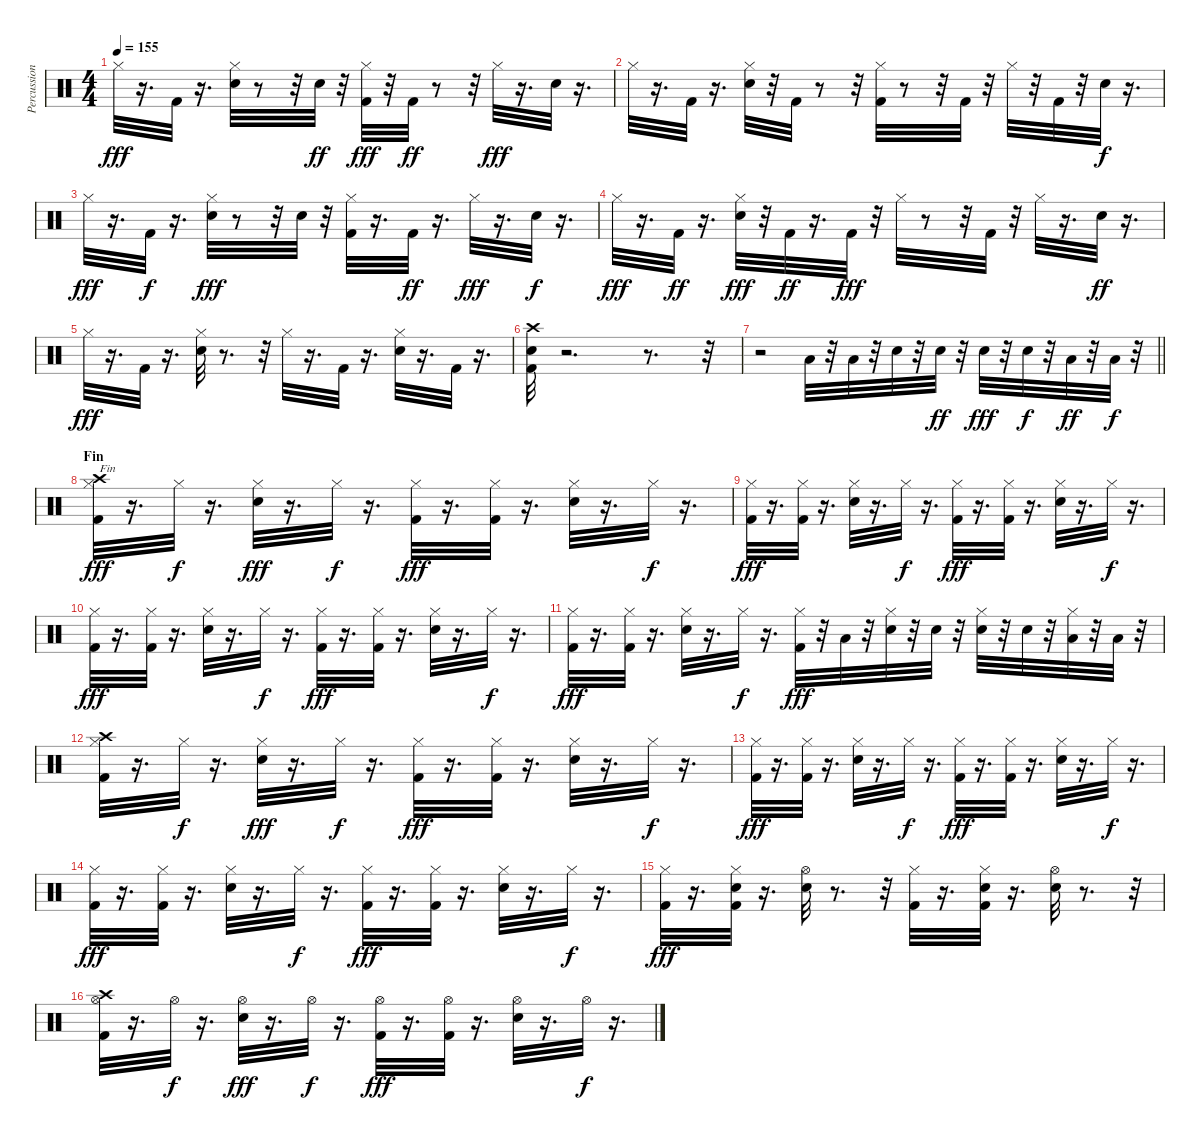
\track ("Percussions" "Percussion") {instrument percussion}
\staff {score}
\articulation defaults
\ts (4 4)
\tempo 155
\clef neutral
\ks c "Hi-Hat (closed)".32{dy fff}
r.16{d} "Kick (hit) 2".32 r.16{d} ("Snare (hit) 2" "Hi-Hat (closed)").32 r.8 r.32 "Snare (hit) 2".32{dy ff} r.32 ("Kick (hit) 2" "Hi-Hat (closed)").32{dy fff} r.32 "Kick (hit) 2".32{dy ff} r.8 r.32 "Hi-Hat (closed)".32{dy fff} r.16{d} "Snare (hit) 2".32 r.16{d} |
"Hi-Hat (closed)".32 r.16{d} "Kick (hit) 2".32 r.16{d} ("Snare (hit) 2" "Hi-Hat (closed)").32 r.32 "Kick (hit) 2".32 r.8 r.32 ("Kick (hit) 2" "Hi-Hat (closed)").32 r.8 r.32 "Kick (hit) 2".32 r.32 "Hi-Hat (closed)".32 r.32 "Kick (hit) 2".32 r.32 "Snare (hit) 2".32{dy f} r.16{d} |
"Hi-Hat (closed)".32{dy fff} r.16{d} "Kick (hit) 2".32{dy f} r.16{d} ("Hi-Hat (closed)" "Snare (hit) 2").32{dy fff} r.8 r.32 "Snare (hit) 2".32 r.32 ("Kick (hit) 2" "Hi-Hat (closed)").32 r.16{d} "Kick (hit) 2".32{dy ff} r.16{d} "Hi-Hat (closed)".32{dy fff} r.16{d} "Snare (hit) 2".32{dy f} r.16{d} |
"Hi-Hat (closed)".32{dy fff} r.16{d} "Kick (hit) 2".32{dy ff} r.16{d} ("Snare (hit) 2" "Hi-Hat (closed)").32{dy fff} r.32 "Kick (hit) 2".32{dy ff} r.16{d} "Kick (hit) 2".32{dy fff} r.32 "Hi-Hat (closed)".32 r.8 r.32 "Kick (hit) 2".32 r.32 "Hi-Hat (closed)".32 r.16{d} "Snare (hit) 2".32{dy ff} r.16{d} |
"Hi-Hat (closed)".32{dy fff} r.16{d} "Kick (hit) 2".32 r.16{d} ("Snare (hit) 2" "Hi-Hat (closed)").32 r.8{d} r.32 "Hi-Hat (closed)".32 r.16{d} "Kick (hit) 2".32 r.16{d} ("Snare (hit) 2" "Hi-Hat (closed)").32 r.16{d} "Kick (hit) 2".32 r.16{d} |
("Crash high (hit)" "Snare (hit) 2" "Kick (hit) 2").32 r.2{d} r.8{d} r.32 |
\barLineRight lightlight
r.2 "Low Floor Tom (hit)".32 r.32 "Low Floor Tom (hit)".32 r.32 "Snare (hit) 2".32 r.32 "Snare (hit) 2".32{dy ff} r.32 "Snare (hit) 2".32{dy fff} r.32 "Snare (hit) 2".32{dy f} r.32 "Low Tom (hit)".32{dy ff} r.32 "Low Tom (hit)".32{dy f} r.32 |
\section ("" "Fin")
("Crash high (hit)" "Hi-Hat (closed)" "Kick (hit) 2").32{txt "Fin" dy fff} r.16{d} "Hi-Hat (closed)".32{dy f} r.16{d} ("Hi-Hat (closed)" "Snare (hit) 2").32{dy fff} r.16{d} "Hi-Hat (closed)".32{dy f} r.16{d} ("Hi-Hat (closed)" "Kick (hit) 2").32{dy fff} r.16{d} ("Hi-Hat (closed)" "Kick (hit) 2").32 r.16{d} ("Hi-Hat (closed)" "Snare (hit) 2").32 r.16{d} "Hi-Hat (closed)".32{dy f} r.16{d} |
("Hi-Hat (closed)" "Kick (hit) 2").32{dy fff} r.16{d} ("Kick (hit) 2" "Hi-Hat (closed)").32 r.16{d} ("Hi-Hat (closed)" "Snare (hit) 2").32 r.16{d} "Hi-Hat (closed)".32{dy f} r.16{d} ("Hi-Hat (closed)" "Kick (hit) 2").32{dy fff} r.16{d} ("Hi-Hat (closed)" "Kick (hit) 2").32 r.16{d} ("Hi-Hat (closed)" "Snare (hit) 2").32 r.16{d} "Hi-Hat (closed)".32{dy f} r.16{d} |
("Hi-Hat (closed)" "Kick (hit) 2").32{dy fff} r.16{d} ("Kick (hit) 2" "Hi-Hat (closed)").32 r.16{d} ("Hi-Hat (closed)" "Snare (hit) 2").32 r.16{d} "Hi-Hat (closed)".32{dy f} r.16{d} ("Hi-Hat (closed)" "Kick (hit) 2").32{dy fff} r.16{d} ("Hi-Hat (closed)" "Kick (hit) 2").32 r.16{d} ("Hi-Hat (closed)" "Snare (hit) 2").32 r.16{d} "Hi-Hat (closed)".32{dy f} r.16{d} |
("Hi-Hat (closed)" "Kick (hit) 2").32{dy fff} r.16{d} ("Kick (hit) 2" "Hi-Hat (closed)").32 r.16{d} ("Hi-Hat (closed)" "Snare (hit) 2").32 r.16{d} "Hi-Hat (closed)".32{dy f} r.16{d} ("Kick (hit) 2" "Hi-Hat (closed)").32{dy fff} r.32 "Low Floor Tom (hit)".32 r.32 ("Snare (hit) 2" "Hi-Hat (closed)").32 r.32 "Snare (hit) 2".32 r.32 ("Snare (hit) 2" "Hi-Hat (closed)").32 r.32 "Snare (hit) 2".32 r.32 ("Low Tom (hit)" "Hi-Hat (closed)").32 r.32 "Low Tom (hit)".32 r.32 |
("Crash high (hit)" "Hi-Hat (closed)" "Kick (hit) 2").32 r.16{d} "Hi-Hat (closed)".32{dy f} r.16{d} ("Hi-Hat (closed)" "Snare (hit) 2").32{dy fff} r.16{d} "Hi-Hat (closed)".32{dy f} r.16{d} ("Hi-Hat (closed)" "Kick (hit) 2").32{dy fff} r.16{d} ("Hi-Hat (closed)" "Kick (hit) 2").32 r.16{d} ("Hi-Hat (closed)" "Snare (hit) 2").32 r.16{d} "Hi-Hat (closed)".32{dy f} r.16{d} |
("Hi-Hat (closed)" "Kick (hit) 2").32{dy fff} r.16{d} ("Kick (hit) 2" "Hi-Hat (closed)").32 r.16{d} ("Hi-Hat (closed)" "Snare (hit) 2").32 r.16{d} "Hi-Hat (closed)".32{dy f} r.16{d} ("Hi-Hat (closed)" "Kick (hit) 2").32{dy fff} r.16{d} ("Hi-Hat (closed)" "Kick (hit) 2").32 r.16{d} ("Hi-Hat (closed)" "Snare (hit) 2").32 r.16{d} "Hi-Hat (closed)".32{dy f} r.16{d} |
("Hi-Hat (closed)" "Kick (hit) 2").32{dy fff} r.16{d} ("Kick (hit) 2" "Hi-Hat (closed)").32 r.16{d} ("Hi-Hat (closed)" "Snare (hit) 2").32 r.16{d} "Hi-Hat (closed)".32{dy f} r.16{d} ("Hi-Hat (closed)" "Kick (hit) 2").32{dy fff} r.16{d} ("Hi-Hat (closed)" "Kick (hit) 2").32 r.16{d} ("Hi-Hat (closed)" "Snare (hit) 2").32 r.16{d} "Hi-Hat (closed)".32{dy f} r.16{d} |
("Hi-Hat (closed)" "Kick (hit) 2").32{dy fff} r.16{d} ("Snare (hit) 2" "Kick (hit) 2" "Hi-Hat (closed)").32 r.16{d} ("Hi-Hat (open)" "Snare (hit) 2").32 r.8{d} r.32 ("Kick (hit) 2" "Hi-Hat (closed)").32 r.16{d} ("Snare (hit) 2" "Kick (hit) 2" "Hi-Hat (closed)").32 r.16{d} ("Hi-Hat (open)" "Snare (hit) 2").32 r.8{d} r.32 |
("Crash high (hit)" "Kick (hit) 2" "Hi-Hat (open)").32 r.16{d} "Hi-Hat (open)".32{dy f} r.16{d} ("Snare (hit) 2" "Hi-Hat (open)").32{dy fff} r.16{d} "Hi-Hat (open)".32{dy f} r.16{d} ("Kick (hit) 2" "Hi-Hat (open)").32{dy fff} r.16{d} ("Kick (hit) 2" "Hi-Hat (open)").32 r.16{d} ("Snare (hit) 2" "Hi-Hat (open)").32 r.16{d} "Hi-Hat (open)".32{dy f} r.16{d}
